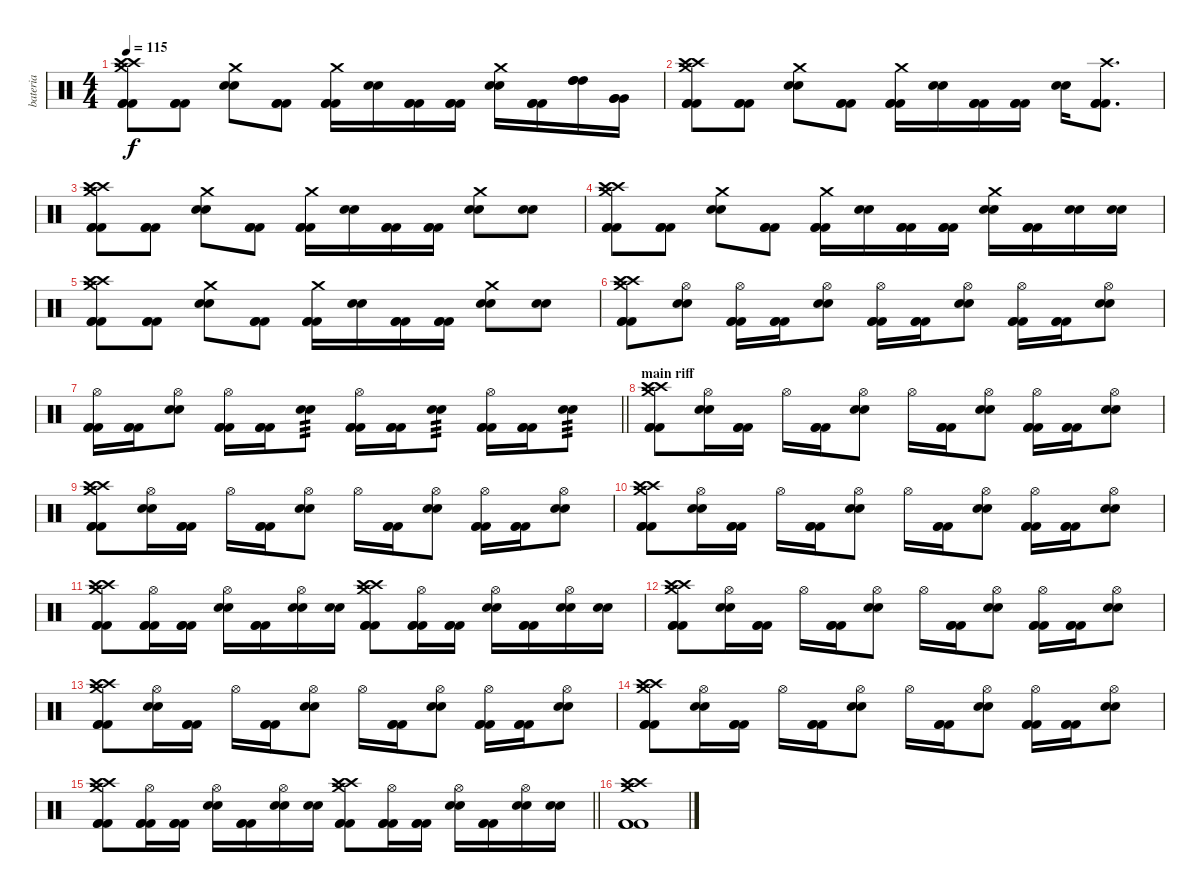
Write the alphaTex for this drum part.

\track ("bateria" "bateria") {instrument percussion}
\staff {score}
\articulation defaults
\ts (4 4)
\tempo 115
\clef neutral
\ks c
("Crash high (hit)" "Crash medium (hit)" "Crash high (hit)" "Kick (hit) 2" "Kick (hit) 2" "Kick (hit) 2").8{dy f} ("Kick (hit) 2" "Kick (hit) 2" "Kick (hit) 2").8 ("Crash medium (hit)" "Electric Snare (hit)" "Electric Snare (hit)").8 ("Kick (hit) 2" "Kick (hit) 2" "Kick (hit) 2").8 ("Crash medium (hit)" "Kick (hit) 2" "Kick (hit) 2" "Kick (hit) 2").16 ("Electric Snare (hit)" "Electric Snare (hit)").16 ("Kick (hit) 2" "Kick (hit) 2" "Kick (hit) 2").16 ("Kick (hit) 2" "Kick (hit) 2" "Kick (hit) 2").16 ("Crash medium (hit)" "Electric Snare (hit)" "Electric Snare (hit)").16 ("Kick (hit) 2" "Kick (hit) 2" "Kick (hit) 2").16 ("High Tom (hit)" "High Tom (hit)" "High Tom (hit)").16 ("Very Low Tom (hit)" "Very Low Tom (hit)" "Very Low Tom (hit)").16 |
("Crash high (hit)" "Crash medium (hit)" "Crash high (hit)" "Kick (hit) 2" "Kick (hit) 2" "Kick (hit) 2").8 ("Kick (hit) 2" "Kick (hit) 2" "Kick (hit) 2").8 ("Crash medium (hit)" "Electric Snare (hit)" "Electric Snare (hit)").8 ("Kick (hit) 2" "Kick (hit) 2" "Kick (hit) 2").8 ("Crash medium (hit)" "Kick (hit) 2" "Kick (hit) 2" "Kick (hit) 2").16 ("Electric Snare (hit)" "Electric Snare (hit)").16 ("Kick (hit) 2" "Kick (hit) 2" "Kick (hit) 2").16 ("Kick (hit) 2" "Kick (hit) 2" "Kick (hit) 2").16 ("Electric Snare (hit)" "Electric Snare (hit)").16 ("Crash high (hit)" "Kick (hit) 2" "Kick (hit) 2" "Kick (hit) 2").8{d} |
("Crash high (hit)" "Crash medium (hit)" "Crash high (hit)" "Kick (hit) 2" "Kick (hit) 2" "Kick (hit) 2").8 ("Kick (hit) 2" "Kick (hit) 2" "Kick (hit) 2").8 ("Crash medium (hit)" "Electric Snare (hit)" "Electric Snare (hit)").8 ("Kick (hit) 2" "Kick (hit) 2" "Kick (hit) 2").8 ("Crash medium (hit)" "Kick (hit) 2" "Kick (hit) 2" "Kick (hit) 2").16 ("Electric Snare (hit)" "Electric Snare (hit)").16 ("Kick (hit) 2" "Kick (hit) 2" "Kick (hit) 2").16 ("Kick (hit) 2" "Kick (hit) 2" "Kick (hit) 2").16 ("Crash medium (hit)" "Electric Snare (hit)" "Electric Snare (hit)").8 ("Electric Snare (hit)" "Electric Snare (hit)").8 |
("Crash high (hit)" "Crash medium (hit)" "Crash high (hit)" "Kick (hit) 2" "Kick (hit) 2" "Kick (hit) 2").8 ("Kick (hit) 2" "Kick (hit) 2" "Kick (hit) 2").8 ("Crash medium (hit)" "Electric Snare (hit)" "Electric Snare (hit)").8 ("Kick (hit) 2" "Kick (hit) 2" "Kick (hit) 2").8 ("Crash medium (hit)" "Kick (hit) 2" "Kick (hit) 2" "Kick (hit) 2").16 ("Electric Snare (hit)" "Electric Snare (hit)").16 ("Kick (hit) 2" "Kick (hit) 2" "Kick (hit) 2").16 ("Kick (hit) 2" "Kick (hit) 2" "Kick (hit) 2").16 ("Crash medium (hit)" "Electric Snare (hit)" "Electric Snare (hit)").16 ("Kick (hit) 2" "Kick (hit) 2" "Kick (hit) 2").16 ("Electric Snare (hit)" "Electric Snare (hit)").16 ("Electric Snare (hit)" "Electric Snare (hit)").16 |
("Crash high (hit)" "Crash medium (hit)" "Crash high (hit)" "Kick (hit) 2" "Kick (hit) 2" "Kick (hit) 2").8 ("Kick (hit) 2" "Kick (hit) 2" "Kick (hit) 2").8 ("Crash medium (hit)" "Electric Snare (hit)" "Electric Snare (hit)").8 ("Kick (hit) 2" "Kick (hit) 2" "Kick (hit) 2").8 ("Crash medium (hit)" "Kick (hit) 2" "Kick (hit) 2" "Kick (hit) 2").16 ("Electric Snare (hit)" "Electric Snare (hit)").16 ("Kick (hit) 2" "Kick (hit) 2" "Kick (hit) 2").16 ("Kick (hit) 2" "Kick (hit) 2" "Kick (hit) 2").16 ("Crash medium (hit)" "Electric Snare (hit)" "Electric Snare (hit)").8 ("Electric Snare (hit)" "Electric Snare (hit)").8 |
("Crash high (hit)" "Crash medium (hit)" "Crash high (hit)" "Kick (hit) 2" "Kick (hit) 2" "Kick (hit) 2").8 ("Hi-Hat (open)" "Electric Snare (hit)" "Electric Snare (hit)").8 ("Hi-Hat (open)" "Kick (hit) 2" "Kick (hit) 2" "Kick (hit) 2").16 ("Kick (hit) 2" "Kick (hit) 2" "Kick (hit) 2").16 ("Hi-Hat (open)" "Electric Snare (hit)" "Electric Snare (hit)").8 ("Hi-Hat (open)" "Kick (hit) 2" "Kick (hit) 2" "Kick (hit) 2").16 ("Kick (hit) 2" "Kick (hit) 2" "Kick (hit) 2").16 ("Hi-Hat (open)" "Electric Snare (hit)" "Electric Snare (hit)").8 ("Hi-Hat (open)" "Kick (hit) 2" "Kick (hit) 2" "Kick (hit) 2").16 ("Kick (hit) 2" "Kick (hit) 2" "Kick (hit) 2").16 ("Hi-Hat (open)" "Electric Snare (hit)" "Electric Snare (hit)").8 |
\barLineRight lightlight
("Hi-Hat (open)" "Kick (hit) 2" "Kick (hit) 2" "Kick (hit) 2").16 ("Kick (hit) 2" "Kick (hit) 2" "Kick (hit) 2").16 ("Hi-Hat (open)" "Electric Snare (hit)" "Electric Snare (hit)").8 ("Hi-Hat (open)" "Kick (hit) 2" "Kick (hit) 2" "Kick (hit) 2").16 ("Kick (hit) 2" "Kick (hit) 2" "Kick (hit) 2").16 ("Electric Snare (hit)" "Electric Snare (hit)").8{tp 3} ("Hi-Hat (open)" "Kick (hit) 2" "Kick (hit) 2" "Kick (hit) 2").16 ("Kick (hit) 2" "Kick (hit) 2" "Kick (hit) 2").16 ("Electric Snare (hit)" "Electric Snare (hit)").8{tp 3} ("Hi-Hat (open)" "Kick (hit) 2" "Kick (hit) 2" "Kick (hit) 2").16 ("Kick (hit) 2" "Kick (hit) 2" "Kick (hit) 2").16 ("Electric Snare (hit)" "Electric Snare (hit)").8{tp 3} |
\section ("" "main riff")
("Crash high (hit)" "Crash medium (hit)" "Crash high (hit)" "Kick (hit) 2" "Kick (hit) 2" "Kick (hit) 2").8 ("Hi-Hat (open)" "Electric Snare (hit)" "Electric Snare (hit)").16 ("Kick (hit) 2" "Kick (hit) 2" "Kick (hit) 2").16 "Hi-Hat (open)".16 ("Kick (hit) 2" "Kick (hit) 2" "Kick (hit) 2").16 ("Hi-Hat (open)" "Electric Snare (hit)" "Electric Snare (hit)").8 "Hi-Hat (open)".16 ("Kick (hit) 2" "Kick (hit) 2" "Kick (hit) 2").16 ("Hi-Hat (open)" "Electric Snare (hit)" "Electric Snare (hit)").8 ("Hi-Hat (open)" "Kick (hit) 2" "Kick (hit) 2" "Kick (hit) 2").16 ("Kick (hit) 2" "Kick (hit) 2" "Kick (hit) 2").16 ("Hi-Hat (open)" "Electric Snare (hit)" "Electric Snare (hit)").8 |
("Crash high (hit)" "Crash medium (hit)" "Crash high (hit)" "Kick (hit) 2" "Kick (hit) 2" "Kick (hit) 2").8 ("Hi-Hat (open)" "Electric Snare (hit)" "Electric Snare (hit)").16 ("Kick (hit) 2" "Kick (hit) 2" "Kick (hit) 2").16 "Hi-Hat (open)".16 ("Kick (hit) 2" "Kick (hit) 2" "Kick (hit) 2").16 ("Hi-Hat (open)" "Electric Snare (hit)" "Electric Snare (hit)").8 "Hi-Hat (open)".16 ("Kick (hit) 2" "Kick (hit) 2" "Kick (hit) 2").16 ("Hi-Hat (open)" "Electric Snare (hit)" "Electric Snare (hit)").8 ("Hi-Hat (open)" "Kick (hit) 2" "Kick (hit) 2" "Kick (hit) 2").16 ("Kick (hit) 2" "Kick (hit) 2" "Kick (hit) 2").16 ("Hi-Hat (open)" "Electric Snare (hit)" "Electric Snare (hit)").8 |
("Crash high (hit)" "Crash medium (hit)" "Crash high (hit)" "Kick (hit) 2" "Kick (hit) 2" "Kick (hit) 2").8 ("Hi-Hat (open)" "Electric Snare (hit)" "Electric Snare (hit)").16 ("Kick (hit) 2" "Kick (hit) 2" "Kick (hit) 2").16 "Hi-Hat (open)".16 ("Kick (hit) 2" "Kick (hit) 2" "Kick (hit) 2").16 ("Hi-Hat (open)" "Electric Snare (hit)" "Electric Snare (hit)").8 "Hi-Hat (open)".16 ("Kick (hit) 2" "Kick (hit) 2" "Kick (hit) 2").16 ("Hi-Hat (open)" "Electric Snare (hit)" "Electric Snare (hit)").8 ("Hi-Hat (open)" "Kick (hit) 2" "Kick (hit) 2" "Kick (hit) 2").16 ("Kick (hit) 2" "Kick (hit) 2" "Kick (hit) 2").16 ("Hi-Hat (open)" "Electric Snare (hit)" "Electric Snare (hit)").8 |
("Crash high (hit)" "Crash medium (hit)" "Crash high (hit)" "Kick (hit) 2" "Kick (hit) 2" "Kick (hit) 2").8 ("Hi-Hat (open)" "Kick (hit) 2" "Kick (hit) 2" "Kick (hit) 2").16 ("Kick (hit) 2" "Kick (hit) 2" "Kick (hit) 2").16 ("Hi-Hat (open)" "Electric Snare (hit)" "Electric Snare (hit)").16 ("Kick (hit) 2" "Kick (hit) 2" "Kick (hit) 2").16 ("Hi-Hat (open)" "Electric Snare (hit)" "Electric Snare (hit)").16 ("Electric Snare (hit)" "Electric Snare (hit)").16 ("Crash high (hit)" "Crash medium (hit)" "Crash high (hit)" "Kick (hit) 2" "Kick (hit) 2" "Kick (hit) 2").8 ("Hi-Hat (open)" "Kick (hit) 2" "Kick (hit) 2" "Kick (hit) 2").16 ("Kick (hit) 2" "Kick (hit) 2" "Kick (hit) 2").16 ("Hi-Hat (open)" "Electric Snare (hit)" "Electric Snare (hit)").16 ("Kick (hit) 2" "Kick (hit) 2" "Kick (hit) 2").16 ("Hi-Hat (open)" "Electric Snare (hit)" "Electric Snare (hit)").16 ("Electric Snare (hit)" "Electric Snare (hit)").16 |
("Crash high (hit)" "Crash medium (hit)" "Crash high (hit)" "Kick (hit) 2" "Kick (hit) 2" "Kick (hit) 2").8 ("Hi-Hat (open)" "Electric Snare (hit)" "Electric Snare (hit)").16 ("Kick (hit) 2" "Kick (hit) 2" "Kick (hit) 2").16 "Hi-Hat (open)".16 ("Kick (hit) 2" "Kick (hit) 2" "Kick (hit) 2").16 ("Hi-Hat (open)" "Electric Snare (hit)" "Electric Snare (hit)").8 "Hi-Hat (open)".16 ("Kick (hit) 2" "Kick (hit) 2" "Kick (hit) 2").16 ("Hi-Hat (open)" "Electric Snare (hit)" "Electric Snare (hit)").8 ("Hi-Hat (open)" "Kick (hit) 2" "Kick (hit) 2" "Kick (hit) 2").16 ("Kick (hit) 2" "Kick (hit) 2" "Kick (hit) 2").16 ("Hi-Hat (open)" "Electric Snare (hit)" "Electric Snare (hit)").8 |
("Crash high (hit)" "Crash medium (hit)" "Crash high (hit)" "Kick (hit) 2" "Kick (hit) 2" "Kick (hit) 2").8 ("Hi-Hat (open)" "Electric Snare (hit)" "Electric Snare (hit)").16 ("Kick (hit) 2" "Kick (hit) 2" "Kick (hit) 2").16 "Hi-Hat (open)".16 ("Kick (hit) 2" "Kick (hit) 2" "Kick (hit) 2").16 ("Hi-Hat (open)" "Electric Snare (hit)" "Electric Snare (hit)").8 "Hi-Hat (open)".16 ("Kick (hit) 2" "Kick (hit) 2" "Kick (hit) 2").16 ("Hi-Hat (open)" "Electric Snare (hit)" "Electric Snare (hit)").8 ("Hi-Hat (open)" "Kick (hit) 2" "Kick (hit) 2" "Kick (hit) 2").16 ("Kick (hit) 2" "Kick (hit) 2" "Kick (hit) 2").16 ("Hi-Hat (open)" "Electric Snare (hit)" "Electric Snare (hit)").8 |
("Crash high (hit)" "Crash medium (hit)" "Crash high (hit)" "Kick (hit) 2" "Kick (hit) 2" "Kick (hit) 2").8 ("Hi-Hat (open)" "Electric Snare (hit)" "Electric Snare (hit)").16 ("Kick (hit) 2" "Kick (hit) 2" "Kick (hit) 2").16 "Hi-Hat (open)".16 ("Kick (hit) 2" "Kick (hit) 2" "Kick (hit) 2").16 ("Hi-Hat (open)" "Electric Snare (hit)" "Electric Snare (hit)").8 "Hi-Hat (open)".16 ("Kick (hit) 2" "Kick (hit) 2" "Kick (hit) 2").16 ("Hi-Hat (open)" "Electric Snare (hit)" "Electric Snare (hit)").8 ("Hi-Hat (open)" "Kick (hit) 2" "Kick (hit) 2" "Kick (hit) 2").16 ("Kick (hit) 2" "Kick (hit) 2" "Kick (hit) 2").16 ("Hi-Hat (open)" "Electric Snare (hit)" "Electric Snare (hit)").8 |
\barLineRight lightlight
("Crash high (hit)" "Crash medium (hit)" "Crash high (hit)" "Kick (hit) 2" "Kick (hit) 2" "Kick (hit) 2").8 ("Hi-Hat (open)" "Kick (hit) 2" "Kick (hit) 2" "Kick (hit) 2").16 ("Kick (hit) 2" "Kick (hit) 2" "Kick (hit) 2").16 ("Hi-Hat (open)" "Electric Snare (hit)" "Electric Snare (hit)").16 ("Kick (hit) 2" "Kick (hit) 2" "Kick (hit) 2").16 ("Hi-Hat (open)" "Electric Snare (hit)" "Electric Snare (hit)").16 ("Electric Snare (hit)" "Electric Snare (hit)").16 ("Crash high (hit)" "Crash medium (hit)" "Crash high (hit)" "Kick (hit) 2" "Kick (hit) 2" "Kick (hit) 2").8 ("Hi-Hat (open)" "Kick (hit) 2" "Kick (hit) 2" "Kick (hit) 2").16 ("Kick (hit) 2" "Kick (hit) 2" "Kick (hit) 2").16 ("Hi-Hat (open)" "Electric Snare (hit)" "Electric Snare (hit)").16 ("Kick (hit) 2" "Kick (hit) 2" "Kick (hit) 2").16 ("Hi-Hat (open)" "Electric Snare (hit)" "Electric Snare (hit)").16 ("Electric Snare (hit)" "Electric Snare (hit)").16 |
("Crash high (hit)" "Crash medium (hit)" "Crash high (hit)" "Kick (hit) 2" "Kick (hit) 2" "Kick (hit) 2").1
